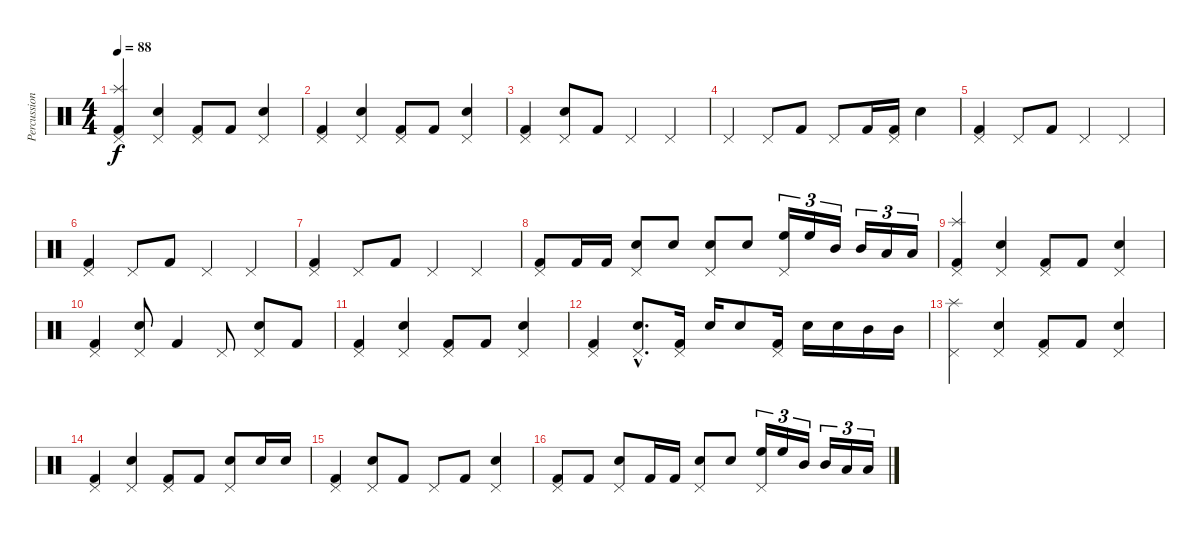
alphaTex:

\track ("Percussion" "Percussion") {instrument percussion}
\staff {score}
\articulation defaults
\ts (4 4)
\tempo 88
\clef neutral
\ks c
("Pedal Hi-Hat (hit)" "Splash (hit)" "Kick (hit) 2").4{dy f} ("Pedal Hi-Hat (hit)" "Snare (hit) 2").4 ("Pedal Hi-Hat (hit)" "Kick (hit) 2").8 "Kick (hit) 2".8 ("Pedal Hi-Hat (hit)" "Snare (hit) 2").4 |
("Pedal Hi-Hat (hit)" "Kick (hit) 2").4 ("Pedal Hi-Hat (hit)" "Snare (hit) 2").4 ("Pedal Hi-Hat (hit)" "Kick (hit) 2").8 "Kick (hit) 2".8 ("Pedal Hi-Hat (hit)" "Snare (hit) 2").4 |
("Pedal Hi-Hat (hit)" "Kick (hit) 2").4 ("Pedal Hi-Hat (hit)" "Snare (hit) 2").8 "Kick (hit) 2".8 "Pedal Hi-Hat (hit)".4 "Pedal Hi-Hat (hit)".4 |
"Pedal Hi-Hat (hit)".4 "Pedal Hi-Hat (hit)".8 "Kick (hit) 2".8 "Pedal Hi-Hat (hit)".8 "Kick (hit) 2".16 ("Pedal Hi-Hat (hit)" "Kick (hit) 2").16 "Snare (hit) 2".4 |
("Pedal Hi-Hat (hit)" "Kick (hit) 2").4 "Pedal Hi-Hat (hit)".8 "Kick (hit) 2".8 "Pedal Hi-Hat (hit)".4 "Pedal Hi-Hat (hit)".4 |
("Pedal Hi-Hat (hit)" "Kick (hit) 2").4 "Pedal Hi-Hat (hit)".8 "Kick (hit) 2".8 "Pedal Hi-Hat (hit)".4 "Pedal Hi-Hat (hit)".4 |
("Pedal Hi-Hat (hit)" "Kick (hit) 2").4 "Pedal Hi-Hat (hit)".8 "Kick (hit) 2".8 "Pedal Hi-Hat (hit)".4 "Pedal Hi-Hat (hit)".4 |
("Pedal Hi-Hat (hit)" "Kick (hit) 2").8 "Kick (hit) 2".16 "Kick (hit) 2".16 ("Pedal Hi-Hat (hit)" "Snare (hit) 2").8 "Snare (hit) 2".8 ("Pedal Hi-Hat (hit)" "Snare (hit) 2").8 "Snare (hit) 2".8 ("Pedal Hi-Hat (hit)" "High Floor Tom (hit)").16{tu (3 2)} "High Floor Tom (hit)".16{tu (3 2)} "Mid Tom (hit)".16{tu (3 2)} "Mid Tom (hit)".16{tu (3 2)} "Low Tom (hit)".16{tu (3 2)} "Low Tom (hit)".16{tu (3 2)} |
("Pedal Hi-Hat (hit)" "Splash (hit)" "Kick (hit) 2").4 ("Pedal Hi-Hat (hit)" "Snare (hit) 2").4 ("Pedal Hi-Hat (hit)" "Kick (hit) 2").8 "Kick (hit) 2".8 ("Pedal Hi-Hat (hit)" "Snare (hit) 2").4 |
("Pedal Hi-Hat (hit)" "Kick (hit) 2").4 ("Pedal Hi-Hat (hit)" "Snare (hit) 2").8 "Kick (hit) 2".4 "Pedal Hi-Hat (hit)".8 ("Pedal Hi-Hat (hit)" "Snare (hit) 2").8 "Kick (hit) 2".8 |
("Pedal Hi-Hat (hit)" "Kick (hit) 2").4 ("Pedal Hi-Hat (hit)" "Snare (hit) 2").4 ("Pedal Hi-Hat (hit)" "Kick (hit) 2").8 "Kick (hit) 2".8 ("Pedal Hi-Hat (hit)" "Snare (hit) 2").4 |
("Pedal Hi-Hat (hit)" "Kick (hit) 2").4 ("Pedal Hi-Hat (hit)"{hac} "Snare (hit) 2"{hac}).8{d} ("Pedal Hi-Hat (hit)" "Kick (hit) 2").16 "Snare (hit) 2".16 "Snare (hit) 2".8 ("Pedal Hi-Hat (hit)" "Kick (hit) 2").16 "Snare (hit) 2".16 "Snare (hit) 2".16 "Mid Tom (hit)".16 "Mid Tom (hit)".16 |
("Pedal Hi-Hat (hit)" "Splash (hit)").4 ("Pedal Hi-Hat (hit)" "Snare (hit) 2").4 ("Pedal Hi-Hat (hit)" "Kick (hit) 2").8 "Kick (hit) 2".8 ("Pedal Hi-Hat (hit)" "Snare (hit) 2").4 |
("Pedal Hi-Hat (hit)" "Kick (hit) 2").4 ("Pedal Hi-Hat (hit)" "Snare (hit) 2").4 ("Pedal Hi-Hat (hit)" "Kick (hit) 2").8 "Kick (hit) 2".8 ("Pedal Hi-Hat (hit)" "Snare (hit) 2").8 "Snare (hit) 2".16 "Snare (hit) 2".16 |
("Pedal Hi-Hat (hit)" "Kick (hit) 2").4 ("Pedal Hi-Hat (hit)" "Snare (hit) 2").8 "Kick (hit) 2".8 "Pedal Hi-Hat (hit)".8 "Kick (hit) 2".8 ("Pedal Hi-Hat (hit)" "Snare (hit) 2").4 |
("Pedal Hi-Hat (hit)" "Kick (hit) 2").8 "Kick (hit) 2".8 ("Pedal Hi-Hat (hit)" "Snare (hit) 2").8 "Kick (hit) 2".16 "Kick (hit) 2".16 ("Pedal Hi-Hat (hit)" "Snare (hit) 2").8 "Snare (hit) 2".8 ("Pedal Hi-Hat (hit)" "High Floor Tom (hit)").16{tu (3 2)} "High Floor Tom (hit)".16{tu (3 2)} "Mid Tom (hit)".16{tu (3 2)} "Mid Tom (hit)".16{tu (3 2)} "Low Tom (hit)".16{tu (3 2)} "Low Tom (hit)".16{tu (3 2)}
